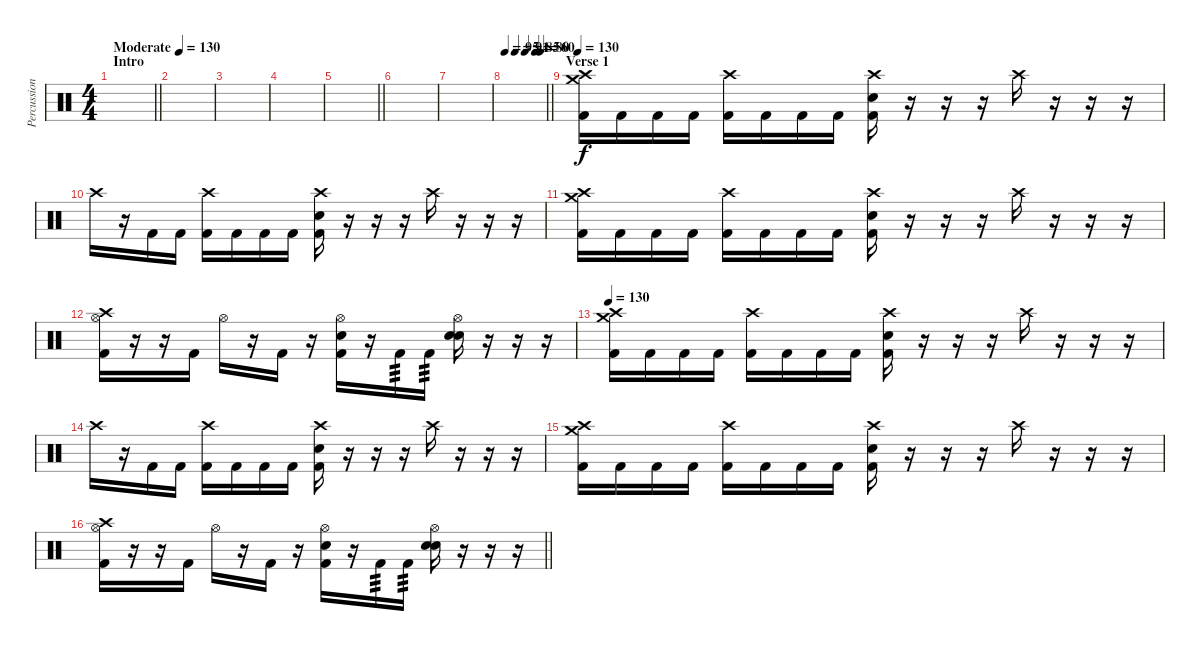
\track ("Percussion" "Percussion") {instrument percussion}
\staff {score}
\articulation defaults
\ts (4 4)
\section ("" "Intro")
\tempo (130 "Moderate")
\tempo 110
\tempo 120
\tempo (130 "Moderate")
\clef neutral
\barLineRight lightlight
\ks c
|
|
|
|
\barLineRight lightlight
|
|
|
\tempo 95
\tempo (91 0.25)
\tempo (85 0.5)
\tempo (80 0.75)
\tempo (60 0.875)
\barLineRight lightlight
|
\section ("" "Verse 1")
\tempo 130
("Crash medium (hit)" "Crash high (hit)" "Kick (hit) 2").16 "Kick (hit) 2".16 "Kick (hit) 2".16 "Kick (hit) 2".16 ("Crash high (hit)" "Kick (hit) 2").16 "Kick (hit) 2".16 "Kick (hit) 2".16 "Kick (hit) 2".16 ("Crash high (hit)" "Snare (hit) 2" "Kick (hit) 2").16 r.16 r.16 r.16 "Crash high (hit)".16 r.16 r.16 r.16 |
"Crash high (hit)".16 r.16 "Kick (hit) 2".16 "Kick (hit) 2".16 ("Crash high (hit)" "Kick (hit) 2").16 "Kick (hit) 2".16 "Kick (hit) 2".16 "Kick (hit) 2".16 ("Crash high (hit)" "Snare (hit) 2" "Kick (hit) 2").16 r.16 r.16 r.16 "Crash high (hit)".16 r.16 r.16 r.16 |
("Crash medium (hit)" "Crash high (hit)" "Kick (hit) 2").16 "Kick (hit) 2".16 "Kick (hit) 2".16 "Kick (hit) 2".16 ("Crash high (hit)" "Kick (hit) 2").16 "Kick (hit) 2".16 "Kick (hit) 2".16 "Kick (hit) 2".16 ("Crash high (hit)" "Snare (hit) 2" "Kick (hit) 2").16 r.16 r.16 r.16 "Crash high (hit)".16 r.16 r.16 r.16 |
("Crash high (hit)" "Hi-Hat (open)" "Kick (hit) 2").16 r.16 r.16 "Kick (hit) 2".16 "Hi-Hat (open)".16 r.16 "Kick (hit) 2".16 r.16 ("Hi-Hat (open)" "Snare (hit) 2" "Kick (hit) 2").16 r.16 "Kick (hit) 2".16{tp 3} "Kick (hit) 2".16{tp 3} ("Hi-Hat (open)" "Snare (hit) 2" "Electric Snare (hit)").16 r.16 r.16 r.16 |
\tempo 130
("Crash medium (hit)" "Crash high (hit)" "Kick (hit) 2").16 "Kick (hit) 2".16 "Kick (hit) 2".16 "Kick (hit) 2".16 ("Crash high (hit)" "Kick (hit) 2").16 "Kick (hit) 2".16 "Kick (hit) 2".16 "Kick (hit) 2".16 ("Crash high (hit)" "Snare (hit) 2" "Kick (hit) 2").16 r.16 r.16 r.16 "Crash high (hit)".16 r.16 r.16 r.16 |
"Crash high (hit)".16 r.16 "Kick (hit) 2".16 "Kick (hit) 2".16 ("Crash high (hit)" "Kick (hit) 2").16 "Kick (hit) 2".16 "Kick (hit) 2".16 "Kick (hit) 2".16 ("Crash high (hit)" "Snare (hit) 2" "Kick (hit) 2").16 r.16 r.16 r.16 "Crash high (hit)".16 r.16 r.16 r.16 |
("Crash medium (hit)" "Crash high (hit)" "Kick (hit) 2").16 "Kick (hit) 2".16 "Kick (hit) 2".16 "Kick (hit) 2".16 ("Crash high (hit)" "Kick (hit) 2").16 "Kick (hit) 2".16 "Kick (hit) 2".16 "Kick (hit) 2".16 ("Crash high (hit)" "Snare (hit) 2" "Kick (hit) 2").16 r.16 r.16 r.16 "Crash high (hit)".16 r.16 r.16 r.16 |
\barLineRight lightlight
("Crash high (hit)" "Hi-Hat (open)" "Kick (hit) 2").16 r.16 r.16 "Kick (hit) 2".16 "Hi-Hat (open)".16 r.16 "Kick (hit) 2".16 r.16 ("Hi-Hat (open)" "Snare (hit) 2" "Kick (hit) 2").16 r.16 "Kick (hit) 2".16{tp 3} "Kick (hit) 2".16{tp 3} ("Hi-Hat (open)" "Snare (hit) 2" "Electric Snare (hit)").16 r.16 r.16 r.16
